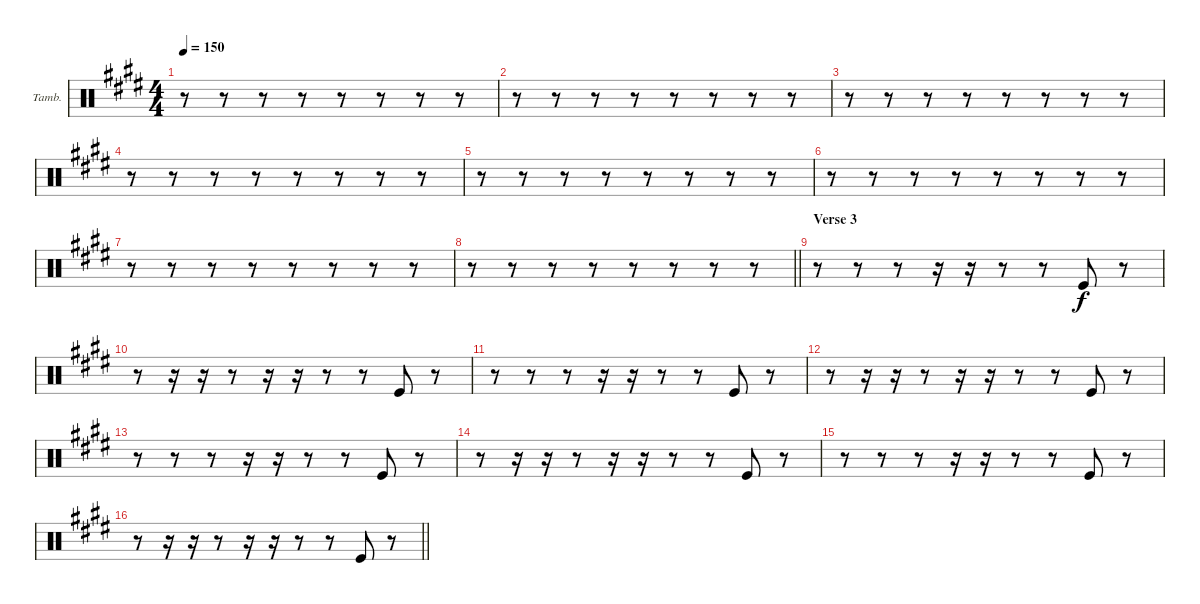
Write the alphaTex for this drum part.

\bracketExtendMode groupsimilarinstruments
\firstSystemTrackNameOrientation horizontal
\otherSystemsTrackNameOrientation horizontal
\track ("Tambourine" "Tamb.") {instrument percussion}
\staff {score}
\articulation defaults
\ts (4 4)
\tempo 150
\clef neutral
\ks e
r.8{dy f} r.8 r.8 r.8 r.8 r.8 r.8 r.8 |
r.8 r.8 r.8 r.8 r.8 r.8 r.8 r.8 |
r.8 r.8 r.8 r.8 r.8 r.8 r.8 r.8 |
r.8 r.8 r.8 r.8 r.8 r.8 r.8 r.8 |
r.8 r.8 r.8 r.8 r.8 r.8 r.8 r.8 |
r.8 r.8 r.8 r.8 r.8 r.8 r.8 r.8 |
r.8 r.8 r.8 r.8 r.8 r.8 r.8 r.8 |
\barLineRight lightlight
r.8 r.8 r.8 r.8 r.8 r.8 r.8 r.8 |
\section ("" "Verse 3")
r.8 r.8 r.8 r.16 r.16 r.8 r.8 "Kick (hit)".8 r.8 |
r.8 r.16 r.16 r.8 r.16 r.16 r.8 r.8 "Kick (hit)".8 r.8 |
r.8 r.8 r.8 r.16 r.16 r.8 r.8 "Kick (hit)".8 r.8 |
r.8 r.16 r.16 r.8 r.16 r.16 r.8 r.8 "Kick (hit)".8 r.8 |
r.8 r.8 r.8 r.16 r.16 r.8 r.8 "Kick (hit)".8 r.8 |
r.8 r.16 r.16 r.8 r.16 r.16 r.8 r.8 "Kick (hit)".8 r.8 |
r.8 r.8 r.8 r.16 r.16 r.8 r.8 "Kick (hit)".8 r.8 |
\barLineRight lightlight
r.8 r.16 r.16 r.8 r.16 r.16 r.8 r.8 "Kick (hit)".8 r.8
